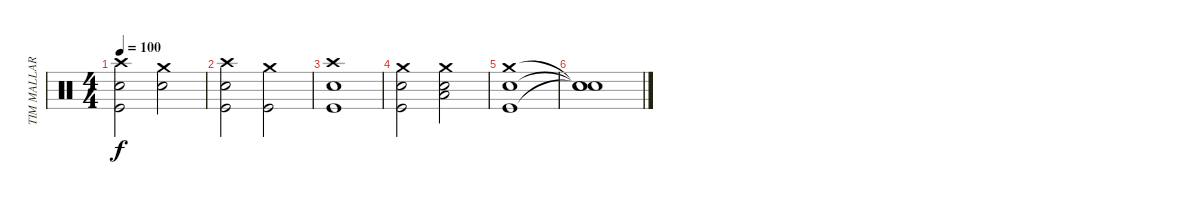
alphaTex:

\track ("TIM MALLARE - drums" "TIM MALLAR") {instrument percussion}
\staff {score}
\articulation defaults
\ts (4 4)
\tempo 100
\clef neutral
\ks c
("Crash high (hit)" "Electric Snare (hit)" "Kick (hit)").2{dy f} ("Crash medium (hit)" "Electric Snare (hit)").2 |
("Crash high (hit)" "Electric Snare (hit)" "Kick (hit)").2 ("Crash medium (hit)" "Kick (hit)").2 |
("Crash high (hit)" "Electric Snare (hit)" "Kick (hit)").1 |
("Crash medium (hit)" "Electric Snare (hit)" "Kick (hit)").2 ("Crash medium (hit)" "Low Tom (hit)" "Snare (hit)").2 |
("Crash medium (hit)" "Electric Snare (hit)" "Kick (hit)").1 |
("Snare (hit)"{t} "Snare (hit)"{t} "Snare (hit)"{t}).1
